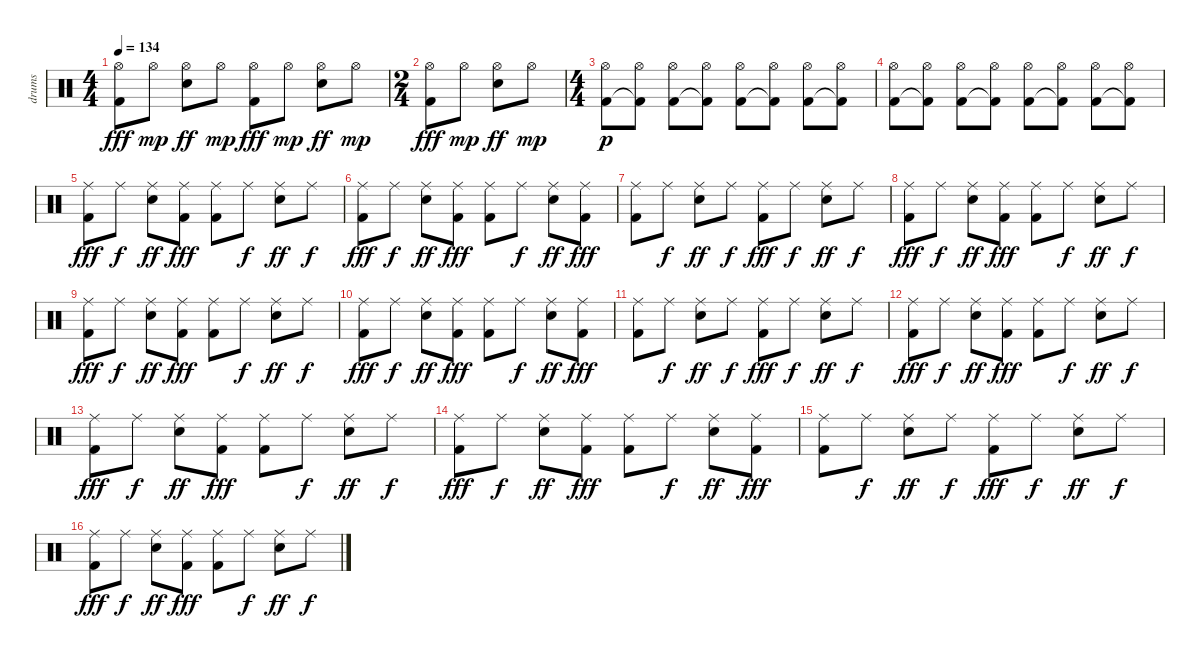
\track ("drums" "drums") {instrument percussion}
\staff {score}
\articulation defaults
\ts (4 4)
\tempo 134
\clef neutral
\ks c
("Hi-Hat (open)" "Kick (hit) 2").8{dy fff} "Hi-Hat (open)".8{dy mp} ("Hi-Hat (open)" "Electric Snare (hit)").8{dy ff} "Hi-Hat (open)".8{dy mp} ("Hi-Hat (open)" "Kick (hit) 2").8{dy fff} "Hi-Hat (open)".8{dy mp} ("Hi-Hat (open)" "Electric Snare (hit)").8{dy ff} "Hi-Hat (open)".8{dy mp} |
\ts (2 4)
("Hi-Hat (open)" "Kick (hit) 2").8{dy fff} "Hi-Hat (open)".8{dy mp} ("Hi-Hat (open)" "Electric Snare (hit)").8{dy ff} "Hi-Hat (open)".8{dy mp} |
\ts (4 4)
("Hi-Hat (open)" "Kick (hit) 2").8{dy p volume 11} ("Hi-Hat (open)" "Kick (hit) 2"{t}).8 ("Hi-Hat (open)" "Kick (hit) 2").8 ("Hi-Hat (open)" "Kick (hit) 2"{t}).8 ("Hi-Hat (open)" "Kick (hit) 2").8 ("Hi-Hat (open)" "Kick (hit) 2"{t}).8 ("Hi-Hat (open)" "Kick (hit) 2").8 ("Hi-Hat (open)" "Kick (hit) 2"{t}).8 |
("Hi-Hat (open)" "Kick (hit) 2").8{volume 13} ("Hi-Hat (open)" "Kick (hit) 2"{t}).8 ("Hi-Hat (open)" "Kick (hit) 2").8 ("Hi-Hat (open)" "Kick (hit) 2"{t}).8 ("Hi-Hat (open)" "Kick (hit) 2").8 ("Hi-Hat (open)" "Kick (hit) 2"{t}).8 ("Hi-Hat (open)" "Kick (hit) 2").8 ("Hi-Hat (open)" "Kick (hit) 2"{t}).8 |
("Ride (middle)" "Kick (hit) 2").8{dy fff volume 12} "Ride (middle)".8{dy f} ("Ride (middle)" "Electric Snare (hit)").8{dy ff} ("Ride (middle)" "Kick (hit) 2").8{dy fff} ("Ride (middle)" "Kick (hit) 2").8 "Ride (middle)".8{dy f} ("Ride (middle)" "Electric Snare (hit)").8{dy ff} "Ride (middle)".8{dy f} |
("Ride (middle)" "Kick (hit) 2").8{dy fff} "Ride (middle)".8{dy f} ("Ride (middle)" "Electric Snare (hit)").8{dy ff} ("Ride (middle)" "Kick (hit) 2").8{dy fff} ("Ride (middle)" "Kick (hit) 2").8 "Ride (middle)".8{dy f} ("Ride (middle)" "Electric Snare (hit)").8{dy ff} ("Ride (middle)" "Kick (hit) 2").8{dy fff} |
("Ride (middle)" "Kick (hit) 2").8 "Ride (middle)".8{dy f} ("Ride (middle)" "Electric Snare (hit)").8{dy ff} "Ride (middle)".8{dy f} ("Ride (middle)" "Kick (hit) 2").8{dy fff} "Ride (middle)".8{dy f} ("Ride (middle)" "Electric Snare (hit)").8{dy ff} "Ride (middle)".8{dy f} |
("Ride (middle)" "Kick (hit) 2").8{dy fff} "Ride (middle)".8{dy f} ("Ride (middle)" "Electric Snare (hit)").8{dy ff} ("Ride (middle)" "Kick (hit) 2").8{dy fff} ("Ride (middle)" "Kick (hit) 2").8 "Ride (middle)".8{dy f} ("Ride (middle)" "Electric Snare (hit)").8{dy ff} "Ride (middle)".8{dy f} |
("Ride (middle)" "Kick (hit) 2").8{dy fff} "Ride (middle)".8{dy f} ("Ride (middle)" "Electric Snare (hit)").8{dy ff} ("Ride (middle)" "Kick (hit) 2").8{dy fff} ("Ride (middle)" "Kick (hit) 2").8 "Ride (middle)".8{dy f} ("Ride (middle)" "Electric Snare (hit)").8{dy ff} "Ride (middle)".8{dy f} |
("Ride (middle)" "Kick (hit) 2").8{dy fff} "Ride (middle)".8{dy f} ("Ride (middle)" "Electric Snare (hit)").8{dy ff} ("Ride (middle)" "Kick (hit) 2").8{dy fff} ("Ride (middle)" "Kick (hit) 2").8 "Ride (middle)".8{dy f} ("Ride (middle)" "Electric Snare (hit)").8{dy ff} ("Ride (middle)" "Kick (hit) 2").8{dy fff} |
("Ride (middle)" "Kick (hit) 2").8 "Ride (middle)".8{dy f} ("Ride (middle)" "Electric Snare (hit)").8{dy ff} "Ride (middle)".8{dy f} ("Ride (middle)" "Kick (hit) 2").8{dy fff} "Ride (middle)".8{dy f} ("Ride (middle)" "Electric Snare (hit)").8{dy ff} "Ride (middle)".8{dy f} |
("Ride (middle)" "Kick (hit) 2").8{dy fff} "Ride (middle)".8{dy f} ("Ride (middle)" "Electric Snare (hit)").8{dy ff} ("Ride (middle)" "Kick (hit) 2").8{dy fff} ("Ride (middle)" "Kick (hit) 2").8 "Ride (middle)".8{dy f} ("Ride (middle)" "Electric Snare (hit)").8{dy ff} "Ride (middle)".8{dy f} |
("Ride (middle)" "Kick (hit) 2").8{dy fff} "Ride (middle)".8{dy f} ("Ride (middle)" "Electric Snare (hit)").8{dy ff} ("Ride (middle)" "Kick (hit) 2").8{dy fff} ("Ride (middle)" "Kick (hit) 2").8 "Ride (middle)".8{dy f} ("Ride (middle)" "Electric Snare (hit)").8{dy ff} "Ride (middle)".8{dy f} |
("Ride (middle)" "Kick (hit) 2").8{dy fff} "Ride (middle)".8{dy f} ("Ride (middle)" "Electric Snare (hit)").8{dy ff} ("Ride (middle)" "Kick (hit) 2").8{dy fff} ("Ride (middle)" "Kick (hit) 2").8 "Ride (middle)".8{dy f} ("Ride (middle)" "Electric Snare (hit)").8{dy ff} ("Ride (middle)" "Kick (hit) 2").8{dy fff} |
("Ride (middle)" "Kick (hit) 2").8 "Ride (middle)".8{dy f} ("Ride (middle)" "Electric Snare (hit)").8{dy ff} "Ride (middle)".8{dy f} ("Ride (middle)" "Kick (hit) 2").8{dy fff} "Ride (middle)".8{dy f} ("Ride (middle)" "Electric Snare (hit)").8{dy ff} "Ride (middle)".8{dy f} |
("Ride (middle)" "Kick (hit) 2").8{dy fff} "Ride (middle)".8{dy f} ("Ride (middle)" "Electric Snare (hit)").8{dy ff} ("Ride (middle)" "Kick (hit) 2").8{dy fff} ("Ride (middle)" "Kick (hit) 2").8 "Ride (middle)".8{dy f} ("Ride (middle)" "Electric Snare (hit)").8{dy ff} "Ride (middle)".8{dy f}
